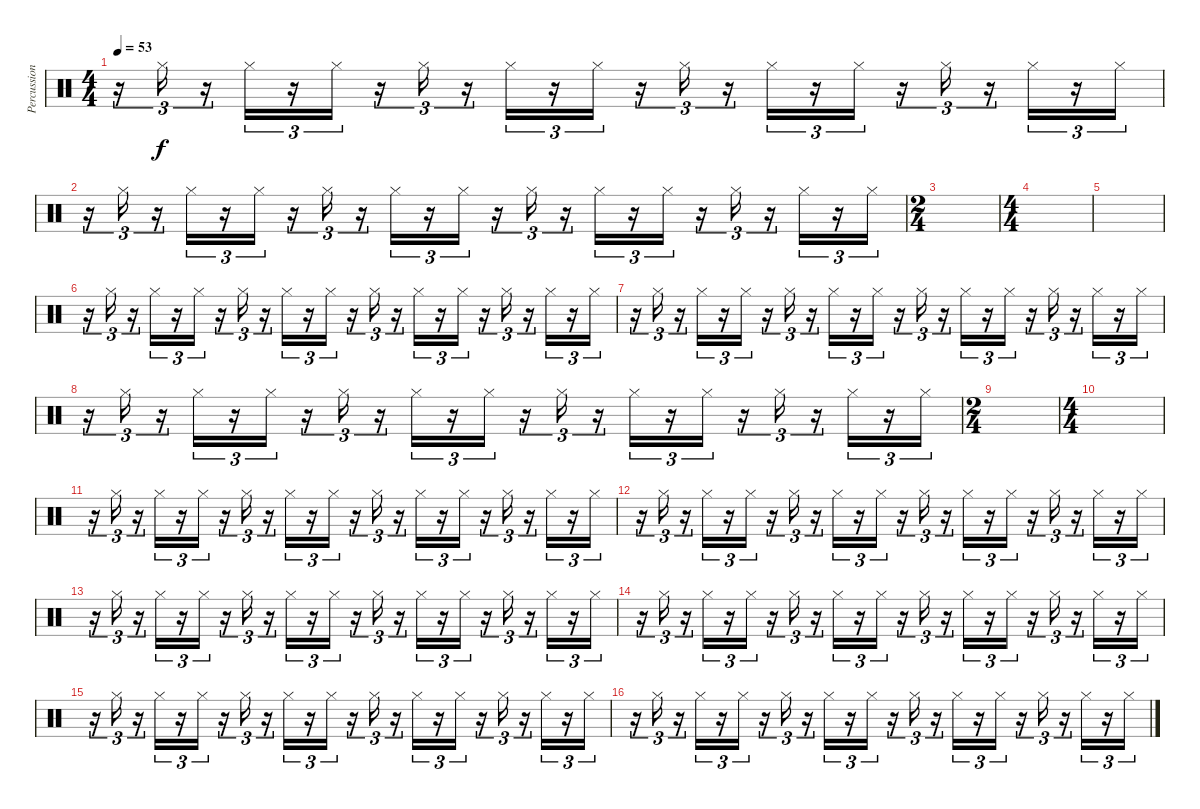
\track ("Percussion" "Percussion") {instrument percussion}
\staff {score}
\articulation defaults
\ts (4 4)
\tempo 53
\clef neutral
\ks c
r.16{tu (3 2) dy f volume 6} "Hi-Hat (closed)".16{tu (3 2)} r.16{tu (3 2)} "Hi-Hat (closed)".16{tu (3 2)} r.16{tu (3 2)} "Hi-Hat (closed)".16{tu (3 2)} r.16{tu (3 2)} "Hi-Hat (closed)".16{tu (3 2)} r.16{tu (3 2)} "Hi-Hat (closed)".16{tu (3 2)} r.16{tu (3 2)} "Hi-Hat (closed)".16{tu (3 2)} r.16{tu (3 2)} "Hi-Hat (closed)".16{tu (3 2)} r.16{tu (3 2)} "Hi-Hat (closed)".16{tu (3 2)} r.16{tu (3 2)} "Hi-Hat (closed)".16{tu (3 2)} r.16{tu (3 2)} "Hi-Hat (closed)".16{tu (3 2)} r.16{tu (3 2)} "Hi-Hat (closed)".16{tu (3 2)} r.16{tu (3 2)} "Hi-Hat (closed)".16{tu (3 2)} |
r.16{tu (3 2) volume 6} "Hi-Hat (closed)".16{tu (3 2)} r.16{tu (3 2)} "Hi-Hat (closed)".16{tu (3 2)} r.16{tu (3 2)} "Hi-Hat (closed)".16{tu (3 2)} r.16{tu (3 2)} "Hi-Hat (closed)".16{tu (3 2)} r.16{tu (3 2)} "Hi-Hat (closed)".16{tu (3 2)} r.16{tu (3 2)} "Hi-Hat (closed)".16{tu (3 2)} r.16{tu (3 2)} "Hi-Hat (closed)".16{tu (3 2)} r.16{tu (3 2)} "Hi-Hat (closed)".16{tu (3 2)} r.16{tu (3 2)} "Hi-Hat (closed)".16{tu (3 2)} r.16{tu (3 2)} "Hi-Hat (closed)".16{tu (3 2)} r.16{tu (3 2)} "Hi-Hat (closed)".16{tu (3 2)} r.16{tu (3 2)} "Hi-Hat (closed)".16{tu (3 2)} |
\ts (2 4)
|
\ts (4 4)
|
|
r.16{tu (3 2) volume 6} "Hi-Hat (closed)".16{tu (3 2)} r.16{tu (3 2)} "Hi-Hat (closed)".16{tu (3 2)} r.16{tu (3 2)} "Hi-Hat (closed)".16{tu (3 2)} r.16{tu (3 2)} "Hi-Hat (closed)".16{tu (3 2)} r.16{tu (3 2)} "Hi-Hat (closed)".16{tu (3 2)} r.16{tu (3 2)} "Hi-Hat (closed)".16{tu (3 2)} r.16{tu (3 2)} "Hi-Hat (closed)".16{tu (3 2)} r.16{tu (3 2)} "Hi-Hat (closed)".16{tu (3 2)} r.16{tu (3 2)} "Hi-Hat (closed)".16{tu (3 2)} r.16{tu (3 2)} "Hi-Hat (closed)".16{tu (3 2)} r.16{tu (3 2)} "Hi-Hat (closed)".16{tu (3 2)} r.16{tu (3 2)} "Hi-Hat (closed)".16{tu (3 2)} |
r.16{tu (3 2) volume 6} "Hi-Hat (closed)".16{tu (3 2)} r.16{tu (3 2)} "Hi-Hat (closed)".16{tu (3 2)} r.16{tu (3 2)} "Hi-Hat (closed)".16{tu (3 2)} r.16{tu (3 2)} "Hi-Hat (closed)".16{tu (3 2)} r.16{tu (3 2)} "Hi-Hat (closed)".16{tu (3 2)} r.16{tu (3 2)} "Hi-Hat (closed)".16{tu (3 2)} r.16{tu (3 2)} "Hi-Hat (closed)".16{tu (3 2)} r.16{tu (3 2)} "Hi-Hat (closed)".16{tu (3 2)} r.16{tu (3 2)} "Hi-Hat (closed)".16{tu (3 2)} r.16{tu (3 2)} "Hi-Hat (closed)".16{tu (3 2)} r.16{tu (3 2)} "Hi-Hat (closed)".16{tu (3 2)} r.16{tu (3 2)} "Hi-Hat (closed)".16{tu (3 2)} |
r.16{tu (3 2) volume 6} "Hi-Hat (closed)".16{tu (3 2)} r.16{tu (3 2)} "Hi-Hat (closed)".16{tu (3 2)} r.16{tu (3 2)} "Hi-Hat (closed)".16{tu (3 2)} r.16{tu (3 2)} "Hi-Hat (closed)".16{tu (3 2)} r.16{tu (3 2)} "Hi-Hat (closed)".16{tu (3 2)} r.16{tu (3 2)} "Hi-Hat (closed)".16{tu (3 2)} r.16{tu (3 2)} "Hi-Hat (closed)".16{tu (3 2)} r.16{tu (3 2)} "Hi-Hat (closed)".16{tu (3 2)} r.16{tu (3 2)} "Hi-Hat (closed)".16{tu (3 2)} r.16{tu (3 2)} "Hi-Hat (closed)".16{tu (3 2)} r.16{tu (3 2)} "Hi-Hat (closed)".16{tu (3 2)} r.16{tu (3 2)} "Hi-Hat (closed)".16{tu (3 2)} |
\ts (2 4)
|
\ts (4 4)
|
r.16{tu (3 2) volume 6} "Hi-Hat (closed)".16{tu (3 2)} r.16{tu (3 2)} "Hi-Hat (closed)".16{tu (3 2)} r.16{tu (3 2)} "Hi-Hat (closed)".16{tu (3 2)} r.16{tu (3 2)} "Hi-Hat (closed)".16{tu (3 2)} r.16{tu (3 2)} "Hi-Hat (closed)".16{tu (3 2)} r.16{tu (3 2)} "Hi-Hat (closed)".16{tu (3 2)} r.16{tu (3 2)} "Hi-Hat (closed)".16{tu (3 2)} r.16{tu (3 2)} "Hi-Hat (closed)".16{tu (3 2)} r.16{tu (3 2)} "Hi-Hat (closed)".16{tu (3 2)} r.16{tu (3 2)} "Hi-Hat (closed)".16{tu (3 2)} r.16{tu (3 2)} "Hi-Hat (closed)".16{tu (3 2)} r.16{tu (3 2)} "Hi-Hat (closed)".16{tu (3 2)} |
r.16{tu (3 2) volume 6} "Hi-Hat (closed)".16{tu (3 2)} r.16{tu (3 2)} "Hi-Hat (closed)".16{tu (3 2)} r.16{tu (3 2)} "Hi-Hat (closed)".16{tu (3 2)} r.16{tu (3 2)} "Hi-Hat (closed)".16{tu (3 2)} r.16{tu (3 2)} "Hi-Hat (closed)".16{tu (3 2)} r.16{tu (3 2)} "Hi-Hat (closed)".16{tu (3 2)} r.16{tu (3 2)} "Hi-Hat (closed)".16{tu (3 2)} r.16{tu (3 2)} "Hi-Hat (closed)".16{tu (3 2)} r.16{tu (3 2)} "Hi-Hat (closed)".16{tu (3 2)} r.16{tu (3 2)} "Hi-Hat (closed)".16{tu (3 2)} r.16{tu (3 2)} "Hi-Hat (closed)".16{tu (3 2)} r.16{tu (3 2)} "Hi-Hat (closed)".16{tu (3 2)} |
r.16{tu (3 2) volume 6} "Hi-Hat (closed)".16{tu (3 2)} r.16{tu (3 2)} "Hi-Hat (closed)".16{tu (3 2)} r.16{tu (3 2)} "Hi-Hat (closed)".16{tu (3 2)} r.16{tu (3 2)} "Hi-Hat (closed)".16{tu (3 2)} r.16{tu (3 2)} "Hi-Hat (closed)".16{tu (3 2)} r.16{tu (3 2)} "Hi-Hat (closed)".16{tu (3 2)} r.16{tu (3 2)} "Hi-Hat (closed)".16{tu (3 2)} r.16{tu (3 2)} "Hi-Hat (closed)".16{tu (3 2)} r.16{tu (3 2)} "Hi-Hat (closed)".16{tu (3 2)} r.16{tu (3 2)} "Hi-Hat (closed)".16{tu (3 2)} r.16{tu (3 2)} "Hi-Hat (closed)".16{tu (3 2)} r.16{tu (3 2)} "Hi-Hat (closed)".16{tu (3 2)} |
r.16{tu (3 2) volume 6} "Hi-Hat (closed)".16{tu (3 2)} r.16{tu (3 2)} "Hi-Hat (closed)".16{tu (3 2)} r.16{tu (3 2)} "Hi-Hat (closed)".16{tu (3 2)} r.16{tu (3 2)} "Hi-Hat (closed)".16{tu (3 2)} r.16{tu (3 2)} "Hi-Hat (closed)".16{tu (3 2)} r.16{tu (3 2)} "Hi-Hat (closed)".16{tu (3 2)} r.16{tu (3 2)} "Hi-Hat (closed)".16{tu (3 2)} r.16{tu (3 2)} "Hi-Hat (closed)".16{tu (3 2)} r.16{tu (3 2)} "Hi-Hat (closed)".16{tu (3 2)} r.16{tu (3 2)} "Hi-Hat (closed)".16{tu (3 2)} r.16{tu (3 2)} "Hi-Hat (closed)".16{tu (3 2)} r.16{tu (3 2)} "Hi-Hat (closed)".16{tu (3 2)} |
r.16{tu (3 2) volume 6} "Hi-Hat (closed)".16{tu (3 2)} r.16{tu (3 2)} "Hi-Hat (closed)".16{tu (3 2)} r.16{tu (3 2)} "Hi-Hat (closed)".16{tu (3 2)} r.16{tu (3 2)} "Hi-Hat (closed)".16{tu (3 2)} r.16{tu (3 2)} "Hi-Hat (closed)".16{tu (3 2)} r.16{tu (3 2)} "Hi-Hat (closed)".16{tu (3 2)} r.16{tu (3 2)} "Hi-Hat (closed)".16{tu (3 2)} r.16{tu (3 2)} "Hi-Hat (closed)".16{tu (3 2)} r.16{tu (3 2)} "Hi-Hat (closed)".16{tu (3 2)} r.16{tu (3 2)} "Hi-Hat (closed)".16{tu (3 2)} r.16{tu (3 2)} "Hi-Hat (closed)".16{tu (3 2)} r.16{tu (3 2)} "Hi-Hat (closed)".16{tu (3 2)} |
r.16{tu (3 2) volume 6} "Hi-Hat (closed)".16{tu (3 2)} r.16{tu (3 2)} "Hi-Hat (closed)".16{tu (3 2)} r.16{tu (3 2)} "Hi-Hat (closed)".16{tu (3 2)} r.16{tu (3 2)} "Hi-Hat (closed)".16{tu (3 2)} r.16{tu (3 2)} "Hi-Hat (closed)".16{tu (3 2)} r.16{tu (3 2)} "Hi-Hat (closed)".16{tu (3 2)} r.16{tu (3 2)} "Hi-Hat (closed)".16{tu (3 2)} r.16{tu (3 2)} "Hi-Hat (closed)".16{tu (3 2)} r.16{tu (3 2)} "Hi-Hat (closed)".16{tu (3 2)} r.16{tu (3 2)} "Hi-Hat (closed)".16{tu (3 2)} r.16{tu (3 2)} "Hi-Hat (closed)".16{tu (3 2)} r.16{tu (3 2)} "Hi-Hat (closed)".16{tu (3 2)}
